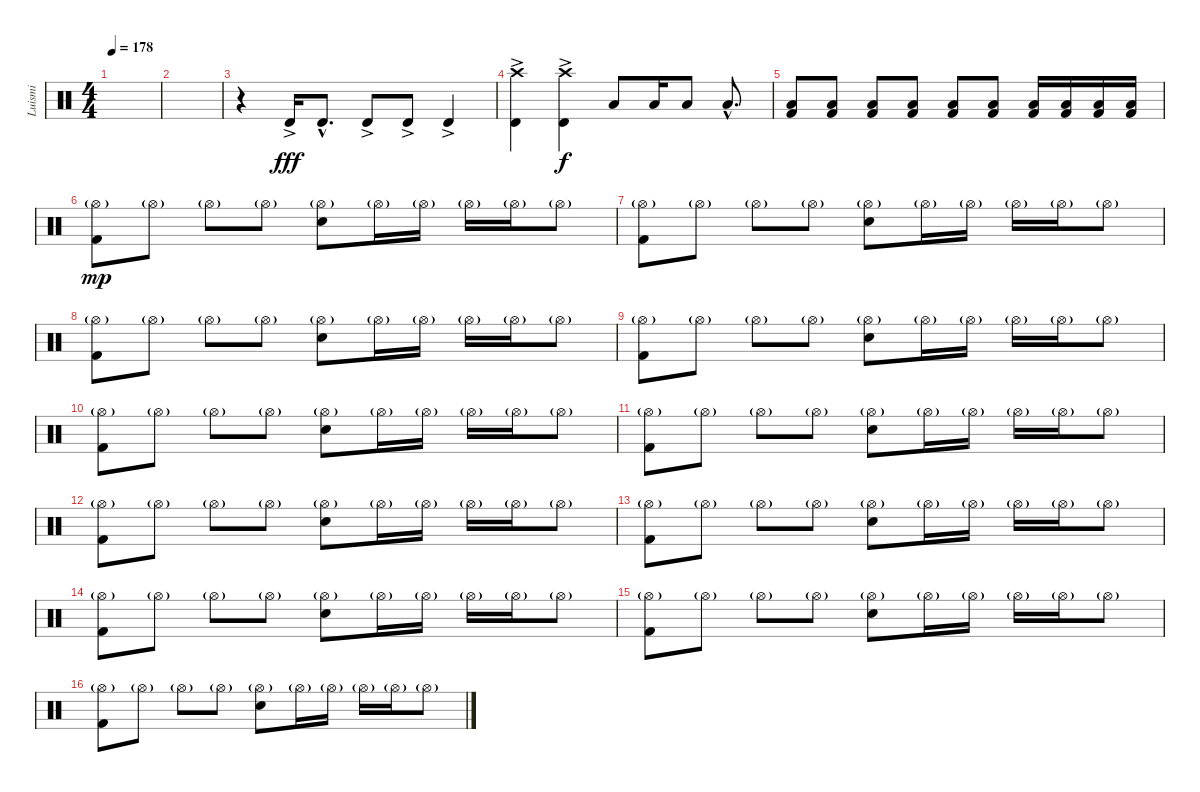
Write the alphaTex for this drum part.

\track ("Luismi" "Luismi") {instrument percussion}
\staff {score}
\articulation defaults
\ts (4 4)
\tempo 178
\clef neutral
\ks c
|
|
r.4 "Timbale high (hit)"{ac}.16{dy fff} "Timbale high (hit)"{hac}.8{d} "Timbale high (hit)"{ac}.8 "Timbale high (hit)"{ac}.8 "Timbale high (hit)"{ac}.4 |
("Crash high (hit)" "Timbale high (hit)"{ac}).4 ("Crash high (hit)" "Timbale high (hit)"{ac}).4{dy f} "Low Tom (hit)".8 "Low Tom (hit)".16 "Low Tom (hit)".8 "Low Tom (hit)"{hac}.8{d} |
("Low Floor Tom (hit)" "Kick (hit) 2").8 ("Low Floor Tom (hit)" "Kick (hit) 2").8 ("Low Floor Tom (hit)" "Kick (hit) 2").8 ("Low Floor Tom (hit)" "Kick (hit) 2").8 ("Low Floor Tom (hit)" "Kick (hit) 2").8 ("Low Floor Tom (hit)" "Kick (hit) 2").8 ("Low Floor Tom (hit)" "Kick (hit) 2").16 ("Low Floor Tom (hit)" "Kick (hit) 2").16 ("Low Floor Tom (hit)" "Kick (hit) 2").16 ("Low Floor Tom (hit)" "Kick (hit) 2").16 |
("Hi-Hat (open)"{g} "Kick (hit) 2").8{dy mp} "Hi-Hat (open)"{g}.8 "Hi-Hat (open)"{g}.8 "Hi-Hat (open)"{g}.8 ("Hi-Hat (open)"{g} "Snare (hit) 2").8 "Hi-Hat (open)"{g}.16 "Hi-Hat (open)"{g}.16 "Hi-Hat (open)"{g}.16 "Hi-Hat (open)"{g}.16 "Hi-Hat (open)"{g}.8 |
("Hi-Hat (open)"{g} "Kick (hit) 2").8 "Hi-Hat (open)"{g}.8 "Hi-Hat (open)"{g}.8 "Hi-Hat (open)"{g}.8 ("Hi-Hat (open)"{g} "Snare (hit) 2").8 "Hi-Hat (open)"{g}.16 "Hi-Hat (open)"{g}.16 "Hi-Hat (open)"{g}.16 "Hi-Hat (open)"{g}.16 "Hi-Hat (open)"{g}.8 |
("Hi-Hat (open)"{g} "Kick (hit) 2").8 "Hi-Hat (open)"{g}.8 "Hi-Hat (open)"{g}.8 "Hi-Hat (open)"{g}.8 ("Hi-Hat (open)"{g} "Snare (hit) 2").8 "Hi-Hat (open)"{g}.16 "Hi-Hat (open)"{g}.16 "Hi-Hat (open)"{g}.16 "Hi-Hat (open)"{g}.16 "Hi-Hat (open)"{g}.8 |
("Hi-Hat (open)"{g} "Kick (hit) 2").8 "Hi-Hat (open)"{g}.8 "Hi-Hat (open)"{g}.8 "Hi-Hat (open)"{g}.8 ("Hi-Hat (open)"{g} "Snare (hit) 2").8 "Hi-Hat (open)"{g}.16 "Hi-Hat (open)"{g}.16 "Hi-Hat (open)"{g}.16 "Hi-Hat (open)"{g}.16 "Hi-Hat (open)"{g}.8 |
("Hi-Hat (open)"{g} "Kick (hit) 2").8 "Hi-Hat (open)"{g}.8 "Hi-Hat (open)"{g}.8 "Hi-Hat (open)"{g}.8 ("Hi-Hat (open)"{g} "Snare (hit) 2").8 "Hi-Hat (open)"{g}.16 "Hi-Hat (open)"{g}.16 "Hi-Hat (open)"{g}.16 "Hi-Hat (open)"{g}.16 "Hi-Hat (open)"{g}.8 |
("Hi-Hat (open)"{g} "Kick (hit) 2").8 "Hi-Hat (open)"{g}.8 "Hi-Hat (open)"{g}.8 "Hi-Hat (open)"{g}.8 ("Hi-Hat (open)"{g} "Snare (hit) 2").8 "Hi-Hat (open)"{g}.16 "Hi-Hat (open)"{g}.16 "Hi-Hat (open)"{g}.16 "Hi-Hat (open)"{g}.16 "Hi-Hat (open)"{g}.8 |
("Hi-Hat (open)"{g} "Kick (hit) 2").8 "Hi-Hat (open)"{g}.8 "Hi-Hat (open)"{g}.8 "Hi-Hat (open)"{g}.8 ("Hi-Hat (open)"{g} "Snare (hit) 2").8 "Hi-Hat (open)"{g}.16 "Hi-Hat (open)"{g}.16 "Hi-Hat (open)"{g}.16 "Hi-Hat (open)"{g}.16 "Hi-Hat (open)"{g}.8 |
("Hi-Hat (open)"{g} "Kick (hit) 2").8 "Hi-Hat (open)"{g}.8 "Hi-Hat (open)"{g}.8 "Hi-Hat (open)"{g}.8 ("Hi-Hat (open)"{g} "Snare (hit) 2").8 "Hi-Hat (open)"{g}.16 "Hi-Hat (open)"{g}.16 "Hi-Hat (open)"{g}.16 "Hi-Hat (open)"{g}.16 "Hi-Hat (open)"{g}.8 |
("Hi-Hat (open)"{g} "Kick (hit) 2").8 "Hi-Hat (open)"{g}.8 "Hi-Hat (open)"{g}.8 "Hi-Hat (open)"{g}.8 ("Hi-Hat (open)"{g} "Snare (hit) 2").8 "Hi-Hat (open)"{g}.16 "Hi-Hat (open)"{g}.16 "Hi-Hat (open)"{g}.16 "Hi-Hat (open)"{g}.16 "Hi-Hat (open)"{g}.8 |
("Hi-Hat (open)"{g} "Kick (hit) 2").8 "Hi-Hat (open)"{g}.8 "Hi-Hat (open)"{g}.8 "Hi-Hat (open)"{g}.8 ("Hi-Hat (open)"{g} "Snare (hit) 2").8 "Hi-Hat (open)"{g}.16 "Hi-Hat (open)"{g}.16 "Hi-Hat (open)"{g}.16 "Hi-Hat (open)"{g}.16 "Hi-Hat (open)"{g}.8 |
("Hi-Hat (open)"{g} "Kick (hit) 2").8 "Hi-Hat (open)"{g}.8 "Hi-Hat (open)"{g}.8 "Hi-Hat (open)"{g}.8 ("Hi-Hat (open)"{g} "Snare (hit) 2").8 "Hi-Hat (open)"{g}.16 "Hi-Hat (open)"{g}.16 "Hi-Hat (open)"{g}.16 "Hi-Hat (open)"{g}.16 "Hi-Hat (open)"{g}.8
